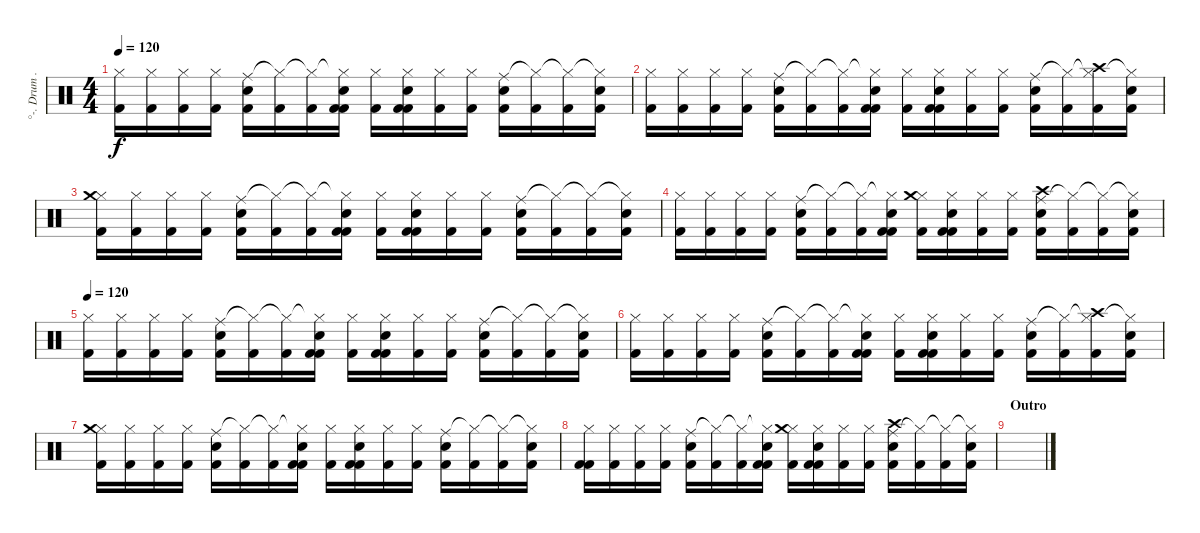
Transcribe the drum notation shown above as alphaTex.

\track ("°-. Drum .-°" "°-. Drum .") {instrument percussion}
\staff {score}
\articulation defaults
\ts (4 4)
\tempo 120
\clef neutral
\ks c
("Hi-Hat (closed)" "Kick (hit) 2").16{dy f} ("Hi-Hat (closed)" "Kick (hit) 2").16 ("Hi-Hat (closed)" "Kick (hit) 2").16 ("Hi-Hat (closed)" "Kick (hit) 2").16 ("Ride (middle)" "Kick (hit) 2" "Electric Snare (hit)").16 ("Hi-Hat (closed)"{t} "Kick (hit) 2").16 ("Hi-Hat (closed)"{t} "Kick (hit) 2").16 ("Hi-Hat (closed)"{t} "Kick (hit) 2" "Kick (hit) 2" "Electric Snare (hit)").16 ("Hi-Hat (closed)" "Kick (hit) 2").16 ("Hi-Hat (closed)" "Kick (hit) 2" "Kick (hit) 2" "Electric Snare (hit)").16 ("Hi-Hat (closed)" "Kick (hit) 2").16 ("Hi-Hat (closed)" "Kick (hit) 2").16 ("Ride (middle)" "Kick (hit) 2" "Electric Snare (hit)").16 ("Hi-Hat (closed)"{t} "Kick (hit) 2").16 ("Hi-Hat (closed)"{t} "Kick (hit) 2").16 ("Hi-Hat (closed)"{t} "Kick (hit) 2" "Electric Snare (hit)").16 |
("Hi-Hat (closed)" "Kick (hit) 2").16 ("Hi-Hat (closed)" "Kick (hit) 2").16 ("Hi-Hat (closed)" "Kick (hit) 2").16 ("Hi-Hat (closed)" "Kick (hit) 2").16 ("Ride (middle)" "Kick (hit) 2" "Electric Snare (hit)").16 ("Hi-Hat (closed)"{t} "Kick (hit) 2").16 ("Hi-Hat (closed)"{t} "Kick (hit) 2").16 ("Hi-Hat (closed)"{t} "Kick (hit) 2" "Kick (hit) 2" "Electric Snare (hit)").16 ("Hi-Hat (closed)" "Kick (hit) 2").16 ("Hi-Hat (closed)" "Kick (hit) 2" "Kick (hit) 2" "Electric Snare (hit)").16 ("Hi-Hat (closed)" "Kick (hit) 2").16 ("Hi-Hat (closed)" "Kick (hit) 2").16 ("Ride (middle)" "Kick (hit) 2" "Electric Snare (hit)").16 ("Hi-Hat (closed)"{t} "Kick (hit) 2").16 ("Hi-Hat (closed)"{t} "Crash high (hit)" "Kick (hit) 2").16 ("Hi-Hat (closed)"{t} "Kick (hit) 2" "Electric Snare (hit)").16 |
("Hi-Hat (closed)" "Crash medium (hit)" "Kick (hit) 2").16 ("Hi-Hat (closed)" "Kick (hit) 2").16 ("Hi-Hat (closed)" "Kick (hit) 2").16 ("Hi-Hat (closed)" "Kick (hit) 2").16 ("Ride (middle)" "Kick (hit) 2" "Electric Snare (hit)").16 ("Hi-Hat (closed)"{t} "Kick (hit) 2").16 ("Hi-Hat (closed)"{t} "Kick (hit) 2").16 ("Hi-Hat (closed)"{t} "Kick (hit) 2" "Kick (hit) 2" "Electric Snare (hit)").16 ("Hi-Hat (closed)" "Kick (hit) 2").16 ("Hi-Hat (closed)" "Kick (hit) 2" "Kick (hit) 2" "Electric Snare (hit)").16 ("Hi-Hat (closed)" "Kick (hit) 2").16 ("Hi-Hat (closed)" "Kick (hit) 2").16 ("Ride (middle)" "Kick (hit) 2" "Electric Snare (hit)").16 ("Hi-Hat (closed)"{t} "Kick (hit) 2").16 ("Hi-Hat (closed)"{t} "Kick (hit) 2").16 ("Hi-Hat (closed)"{t} "Kick (hit) 2" "Electric Snare (hit)").16 |
("Hi-Hat (closed)" "Kick (hit) 2").16 ("Hi-Hat (closed)" "Kick (hit) 2").16 ("Hi-Hat (closed)" "Kick (hit) 2").16 ("Hi-Hat (closed)" "Kick (hit) 2").16 ("Ride (middle)" "Kick (hit) 2" "Electric Snare (hit)").16 ("Hi-Hat (closed)"{t} "Kick (hit) 2").16 ("Hi-Hat (closed)"{t} "Kick (hit) 2").16 ("Hi-Hat (closed)"{t} "Kick (hit) 2" "Kick (hit) 2" "Electric Snare (hit)").16 ("Hi-Hat (closed)" "Crash medium (hit)" "Kick (hit) 2").16 ("Hi-Hat (closed)" "Kick (hit) 2" "Kick (hit) 2" "Electric Snare (hit)").16 ("Hi-Hat (closed)" "Kick (hit) 2").16 ("Hi-Hat (closed)" "Kick (hit) 2").16 ("Ride (middle)" "Crash high (hit)" "Kick (hit) 2" "Electric Snare (hit)").16 ("Hi-Hat (closed)"{t} "Kick (hit) 2").16 ("Hi-Hat (closed)"{t} "Kick (hit) 2").16 ("Hi-Hat (closed)"{t} "Kick (hit) 2" "Electric Snare (hit)").16 |
\tempo 120
("Hi-Hat (closed)" "Kick (hit) 2").16{volume 6} ("Hi-Hat (closed)" "Kick (hit) 2").16 ("Hi-Hat (closed)" "Kick (hit) 2").16 ("Hi-Hat (closed)" "Kick (hit) 2").16 ("Ride (middle)" "Kick (hit) 2" "Electric Snare (hit)").16 ("Hi-Hat (closed)"{t} "Kick (hit) 2").16 ("Hi-Hat (closed)"{t} "Kick (hit) 2").16 ("Hi-Hat (closed)"{t} "Kick (hit) 2" "Kick (hit) 2" "Electric Snare (hit)").16 ("Hi-Hat (closed)" "Kick (hit) 2").16 ("Hi-Hat (closed)" "Kick (hit) 2" "Kick (hit) 2" "Electric Snare (hit)").16 ("Hi-Hat (closed)" "Kick (hit) 2").16 ("Hi-Hat (closed)" "Kick (hit) 2").16 ("Ride (middle)" "Kick (hit) 2" "Electric Snare (hit)").16 ("Hi-Hat (closed)"{t} "Kick (hit) 2").16 ("Hi-Hat (closed)"{t} "Kick (hit) 2").16 ("Hi-Hat (closed)"{t} "Kick (hit) 2" "Electric Snare (hit)").16 |
("Hi-Hat (closed)" "Kick (hit) 2").16 ("Hi-Hat (closed)" "Kick (hit) 2").16 ("Hi-Hat (closed)" "Kick (hit) 2").16 ("Hi-Hat (closed)" "Kick (hit) 2").16 ("Ride (middle)" "Kick (hit) 2" "Electric Snare (hit)").16 ("Hi-Hat (closed)"{t} "Kick (hit) 2").16 ("Hi-Hat (closed)"{t} "Kick (hit) 2").16 ("Hi-Hat (closed)"{t} "Kick (hit) 2" "Kick (hit) 2" "Electric Snare (hit)").16 ("Hi-Hat (closed)" "Kick (hit) 2").16 ("Hi-Hat (closed)" "Kick (hit) 2" "Kick (hit) 2" "Electric Snare (hit)").16 ("Hi-Hat (closed)" "Kick (hit) 2").16 ("Hi-Hat (closed)" "Kick (hit) 2").16 ("Ride (middle)" "Kick (hit) 2" "Electric Snare (hit)").16 ("Hi-Hat (closed)"{t} "Kick (hit) 2").16 ("Hi-Hat (closed)"{t} "Crash high (hit)" "Kick (hit) 2").16 ("Hi-Hat (closed)"{t} "Kick (hit) 2" "Electric Snare (hit)").16 |
("Hi-Hat (closed)" "Crash medium (hit)" "Kick (hit) 2").16 ("Hi-Hat (closed)" "Kick (hit) 2").16 ("Hi-Hat (closed)" "Kick (hit) 2").16 ("Hi-Hat (closed)" "Kick (hit) 2").16 ("Ride (middle)" "Kick (hit) 2" "Electric Snare (hit)").16 ("Hi-Hat (closed)"{t} "Kick (hit) 2").16 ("Hi-Hat (closed)"{t} "Kick (hit) 2").16 ("Hi-Hat (closed)"{t} "Kick (hit) 2" "Kick (hit) 2" "Electric Snare (hit)").16 ("Hi-Hat (closed)" "Kick (hit) 2").16 ("Hi-Hat (closed)" "Kick (hit) 2" "Kick (hit) 2" "Electric Snare (hit)").16 ("Hi-Hat (closed)" "Kick (hit) 2").16 ("Hi-Hat (closed)" "Kick (hit) 2").16 ("Ride (middle)" "Kick (hit) 2" "Electric Snare (hit)").16 ("Hi-Hat (closed)"{t} "Kick (hit) 2").16 ("Hi-Hat (closed)"{t} "Kick (hit) 2").16 ("Hi-Hat (closed)"{t} "Kick (hit) 2" "Electric Snare (hit)").16 |
("Hi-Hat (closed)" "Kick (hit) 2" "Kick (hit) 2").16 ("Hi-Hat (closed)" "Kick (hit) 2").16 ("Hi-Hat (closed)" "Kick (hit) 2").16 ("Hi-Hat (closed)" "Kick (hit) 2").16 ("Ride (middle)" "Kick (hit) 2" "Electric Snare (hit)").16 ("Hi-Hat (closed)"{t} "Kick (hit) 2").16 ("Hi-Hat (closed)"{t} "Kick (hit) 2").16 ("Hi-Hat (closed)"{t} "Kick (hit) 2" "Kick (hit) 2" "Electric Snare (hit)").16 ("Hi-Hat (closed)" "Crash medium (hit)" "Kick (hit) 2").16 ("Hi-Hat (closed)" "Kick (hit) 2" "Kick (hit) 2" "Electric Snare (hit)").16 ("Hi-Hat (closed)" "Kick (hit) 2").16 ("Hi-Hat (closed)" "Kick (hit) 2").16 ("Ride (middle)" "Crash high (hit)" "Kick (hit) 2" "Electric Snare (hit)").16 ("Hi-Hat (closed)"{t} "Kick (hit) 2").16 ("Hi-Hat (closed)"{t} "Kick (hit) 2").16 ("Hi-Hat (closed)"{t} "Kick (hit) 2" "Electric Snare (hit)").16 |
\section ("" "Outro")
